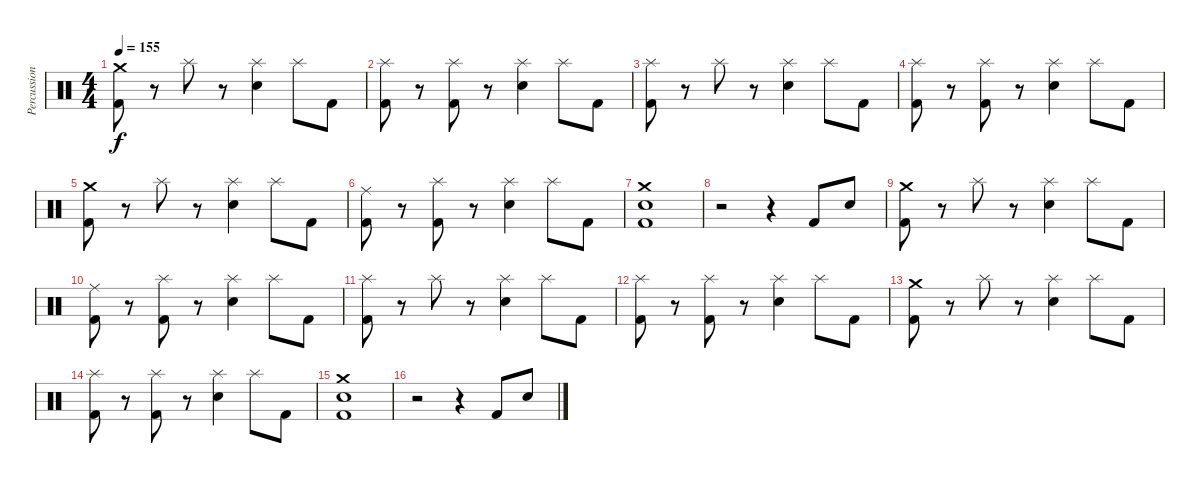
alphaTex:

\track ("Percussions" "Percussion") {instrument percussion}
\staff {score}
\articulation defaults
\ts (4 4)
\tempo 155
\clef neutral
\ks c
("Crash medium (hit)" "Kick (hit) 2").8{dy f} r.8 "Splash (hit)".8 r.8 ("Splash (hit)" "Snare (hit) 2").4 "Splash (hit)".8 "Kick (hit) 2".8 |
("Splash (hit)" "Kick (hit) 2").8 r.8 ("Splash (hit)" "Kick (hit) 2").8 r.8 ("Splash (hit)" "Snare (hit) 2").4 "Splash (hit)".8 "Kick (hit) 2".8 |
("Splash (hit)" "Kick (hit) 2").8 r.8 "Splash (hit)".8 r.8 ("Splash (hit)" "Snare (hit) 2").4 "Splash (hit)".8 "Kick (hit) 2".8 |
("Splash (hit)" "Kick (hit) 2").8 r.8 ("Splash (hit)" "Kick (hit) 2").8 r.8 ("Splash (hit)" "Snare (hit) 2").4 "Splash (hit)".8 "Kick (hit) 2".8 |
("Crash medium (hit)" "Kick (hit) 2").8 r.8 "Splash (hit)".8 r.8 ("Splash (hit)" "Snare (hit) 2").4 "Splash (hit)".8 "Kick (hit) 2".8 |
("Ride (middle)" "Kick (hit) 2").8 r.8 ("Splash (hit)" "Kick (hit) 2").8 r.8 ("Splash (hit)" "Snare (hit) 2").4 "Splash (hit)".8 "Kick (hit) 2".8 |
("Crash medium (hit)" "Snare (hit) 2" "Kick (hit) 2").1 |
r.2 r.4 "Kick (hit) 2".8 "Snare (hit) 2".8 |
("Crash medium (hit)" "Kick (hit) 2").8 r.8 "Splash (hit)".8 r.8 ("Splash (hit)" "Snare (hit) 2").4 "Splash (hit)".8 "Kick (hit) 2".8 |
("Ride (middle)" "Kick (hit) 2").8 r.8 ("Splash (hit)" "Kick (hit) 2").8 r.8 ("Splash (hit)" "Snare (hit) 2").4 "Splash (hit)".8 "Kick (hit) 2".8 |
("Splash (hit)" "Kick (hit) 2").8 r.8 "Splash (hit)".8 r.8 ("Splash (hit)" "Snare (hit) 2").4 "Splash (hit)".8 "Kick (hit) 2".8 |
("Splash (hit)" "Kick (hit) 2").8 r.8 ("Splash (hit)" "Kick (hit) 2").8 r.8 ("Splash (hit)" "Snare (hit) 2").4 "Splash (hit)".8 "Kick (hit) 2".8 |
("Crash medium (hit)" "Kick (hit) 2").8 r.8 "Splash (hit)".8 r.8 ("Splash (hit)" "Snare (hit) 2").4 "Splash (hit)".8 "Kick (hit) 2".8 |
("Splash (hit)" "Kick (hit) 2").8 r.8 ("Splash (hit)" "Kick (hit) 2").8 r.8 ("Splash (hit)" "Snare (hit) 2").4 "Splash (hit)".8 "Kick (hit) 2".8 |
("Crash medium (hit)" "Snare (hit) 2" "Kick (hit) 2").1 |
r.2 r.4 "Kick (hit) 2".8 "Snare (hit) 2".8
